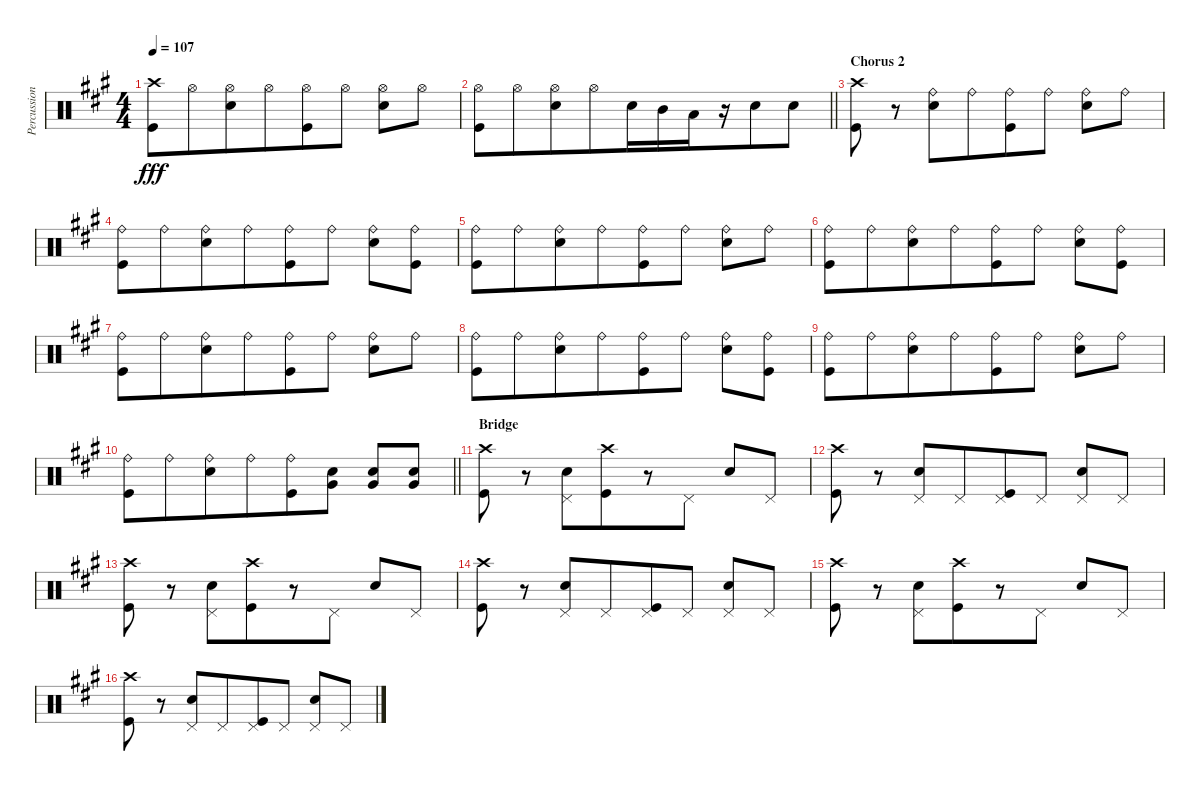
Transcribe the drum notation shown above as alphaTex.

\track ("Percussion" "Percussion") {instrument percussion}
\staff {score}
\articulation defaults
\ts (4 4)
\tempo 107
\clef neutral
\ks a
("Kick (hit)" "Crash high (hit)").8{dy fff} "Hi-Hat (open)".8{beam merge} ("Electric Snare (hit)" "Hi-Hat (open)").8{beam merge} "Hi-Hat (open)".8{beam merge} ("Kick (hit)" "Hi-Hat (open)").8{beam merge} "Hi-Hat (open)".8 ("Electric Snare (hit)" "Hi-Hat (open)").8{beam merge} "Hi-Hat (open)".8 |
\barLineRight lightlight
("Kick (hit)" "Hi-Hat (open)").8 "Hi-Hat (open)".8{beam merge} ("Electric Snare (hit)" "Hi-Hat (open)").8{beam merge} "Hi-Hat (open)".8{beam merge} "Electric Snare (hit)".16{beam merge} "Mid Tom (hit)".16 "Low Tom (hit)".16{beam merge} r.16 "Electric Snare (hit)".8 "Electric Snare (hit)".8 |
\section ("" "Chorus 2")
("Kick (hit)" "Crash high (hit)").8 r.8{beam merge} ("Electric Snare (hit)" "Ride (bell)").8{beam merge} "Ride (bell)".8{beam merge} ("Ride (bell)" "Kick (hit)").8{beam merge} "Ride (bell)".8 ("Ride (bell)" "Electric Snare (hit)").8{beam merge} "Ride (bell)".8 |
("Kick (hit)" "Ride (bell)").8 "Ride (bell)".8{beam merge} ("Electric Snare (hit)" "Ride (bell)").8{beam merge} "Ride (bell)".8{beam merge} ("Ride (bell)" "Kick (hit)").8{beam merge} "Ride (bell)".8 ("Ride (bell)" "Electric Snare (hit)").8{beam merge} ("Ride (bell)" "Kick (hit)").8 |
("Kick (hit)" "Ride (bell)").8 "Ride (bell)".8{beam merge} ("Electric Snare (hit)" "Ride (bell)").8{beam merge} "Ride (bell)".8{beam merge} ("Ride (bell)" "Kick (hit)").8{beam merge} "Ride (bell)".8 ("Ride (bell)" "Electric Snare (hit)").8{beam merge} "Ride (bell)".8 |
("Kick (hit)" "Ride (bell)").8 "Ride (bell)".8{beam merge} ("Electric Snare (hit)" "Ride (bell)").8{beam merge} "Ride (bell)".8{beam merge} ("Ride (bell)" "Kick (hit)").8{beam merge} "Ride (bell)".8 ("Ride (bell)" "Electric Snare (hit)").8{beam merge} ("Ride (bell)" "Kick (hit)").8 |
("Kick (hit)" "Ride (bell)").8 "Ride (bell)".8{beam merge} ("Electric Snare (hit)" "Ride (bell)").8{beam merge} "Ride (bell)".8{beam merge} ("Ride (bell)" "Kick (hit)").8{beam merge} "Ride (bell)".8 ("Ride (bell)" "Electric Snare (hit)").8{beam merge} "Ride (bell)".8 |
("Kick (hit)" "Ride (bell)").8 "Ride (bell)".8{beam merge} ("Electric Snare (hit)" "Ride (bell)").8{beam merge} "Ride (bell)".8{beam merge} ("Ride (bell)" "Kick (hit)").8{beam merge} "Ride (bell)".8 ("Ride (bell)" "Electric Snare (hit)").8{beam merge} ("Ride (bell)" "Kick (hit)").8 |
("Kick (hit)" "Ride (bell)").8 "Ride (bell)".8{beam merge} ("Electric Snare (hit)" "Ride (bell)").8{beam merge} "Ride (bell)".8{beam merge} ("Ride (bell)" "Kick (hit)").8{beam merge} "Ride (bell)".8 ("Ride (bell)" "Electric Snare (hit)").8{beam merge} "Ride (bell)".8 |
\barLineRight lightlight
("Kick (hit)" "Ride (bell)").8 "Ride (bell)".8{beam merge} ("Electric Snare (hit)" "Ride (bell)").8{beam merge} "Ride (bell)".8{beam merge} ("Ride (bell)" "Kick (hit)").8{beam merge} ("Very Low Tom (hit)" "Electric Snare (hit)").8 ("Very Low Tom (hit)" "Electric Snare (hit)").8{beam merge} ("Very Low Tom (hit)" "Electric Snare (hit)").8 |
\section ("" "Bridge")
("Kick (hit)" "Crash high (hit)").8 r.8{beam merge} ("Electric Snare (hit)" "Pedal Hi-Hat (hit)").8{beam merge} ("Kick (hit)" "Crash high (hit)").8{beam merge} r.8{beam merge} "Pedal Hi-Hat (hit)".8 "Electric Snare (hit)".8{beam merge} "Pedal Hi-Hat (hit)".8 |
("Kick (hit)" "Crash high (hit)").8 r.8{beam merge} ("Electric Snare (hit)" "Pedal Hi-Hat (hit)").8{beam merge} "Pedal Hi-Hat (hit)".8{beam merge} ("Kick (hit)" "Pedal Hi-Hat (hit)").8{beam merge} "Pedal Hi-Hat (hit)".8 ("Electric Snare (hit)" "Pedal Hi-Hat (hit)").8{beam merge} "Pedal Hi-Hat (hit)".8 |
("Kick (hit)" "Crash high (hit)").8 r.8{beam merge} ("Electric Snare (hit)" "Pedal Hi-Hat (hit)").8{beam merge} ("Kick (hit)" "Crash high (hit)").8{beam merge} r.8{beam merge} "Pedal Hi-Hat (hit)".8 "Electric Snare (hit)".8{beam merge} "Pedal Hi-Hat (hit)".8 |
("Kick (hit)" "Crash high (hit)").8 r.8{beam merge} ("Electric Snare (hit)" "Pedal Hi-Hat (hit)").8{beam merge} "Pedal Hi-Hat (hit)".8{beam merge} ("Kick (hit)" "Pedal Hi-Hat (hit)").8{beam merge} "Pedal Hi-Hat (hit)".8 ("Electric Snare (hit)" "Pedal Hi-Hat (hit)").8{beam merge} "Pedal Hi-Hat (hit)".8 |
("Kick (hit)" "Crash high (hit)").8 r.8{beam merge} ("Electric Snare (hit)" "Pedal Hi-Hat (hit)").8{beam merge} ("Kick (hit)" "Crash high (hit)").8{beam merge} r.8{beam merge} "Pedal Hi-Hat (hit)".8 "Electric Snare (hit)".8{beam merge} "Pedal Hi-Hat (hit)".8 |
("Kick (hit)" "Crash high (hit)").8 r.8{beam merge} ("Electric Snare (hit)" "Pedal Hi-Hat (hit)").8{beam merge} "Pedal Hi-Hat (hit)".8{beam merge} ("Kick (hit)" "Pedal Hi-Hat (hit)").8{beam merge} "Pedal Hi-Hat (hit)".8 ("Electric Snare (hit)" "Pedal Hi-Hat (hit)").8{beam merge} "Pedal Hi-Hat (hit)".8
